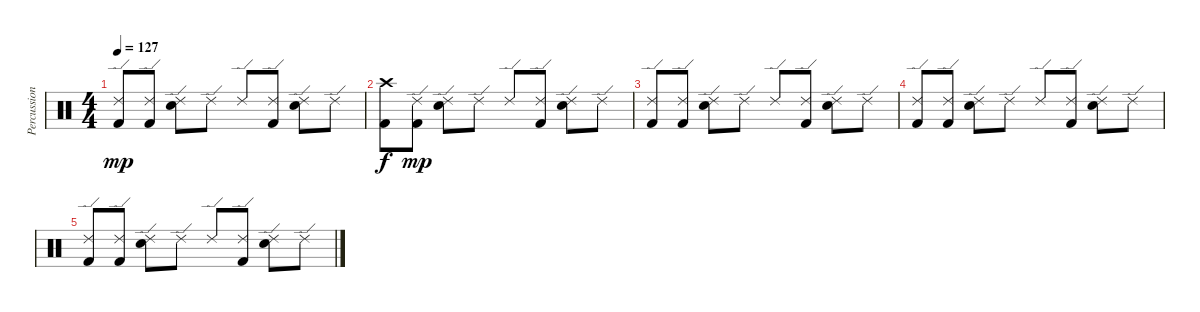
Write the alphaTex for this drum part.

\track ("Percussion" "Percussion") {instrument percussion}
\staff {score}
\articulation defaults
\ts (4 4)
\tempo 127
\clef neutral
\ks c
("Ride (edge) 2" "Kick (hit) 2").8{dy mp volume 8} ("Ride (edge) 2" "Kick (hit) 2").8 ("Ride (edge) 2" "Snare (hit) 2").8 "Ride (edge) 2".8 "Ride (edge) 2".8 ("Ride (edge) 2" "Kick (hit) 2").8 ("Ride (edge) 2" "Snare (hit) 2").8 "Ride (edge) 2".8 |
("Crash high (hit)" "Kick (hit) 2").8{dy f volume 6} ("Ride (edge) 2" "Kick (hit) 2").8{dy mp} ("Ride (edge) 2" "Snare (hit) 2").8 "Ride (edge) 2".8 "Ride (edge) 2".8 ("Ride (edge) 2" "Kick (hit) 2").8 ("Ride (edge) 2" "Snare (hit) 2").8 "Ride (edge) 2".8 |
("Ride (edge) 2" "Kick (hit) 2").8{volume 4} ("Ride (edge) 2" "Kick (hit) 2").8 ("Ride (edge) 2" "Snare (hit) 2").8 "Ride (edge) 2".8 "Ride (edge) 2".8 ("Ride (edge) 2" "Kick (hit) 2").8 ("Ride (edge) 2" "Snare (hit) 2").8 "Ride (edge) 2".8 |
("Ride (edge) 2" "Kick (hit) 2").8{volume 2} ("Ride (edge) 2" "Kick (hit) 2").8 ("Ride (edge) 2" "Snare (hit) 2").8 "Ride (edge) 2".8 "Ride (edge) 2".8 ("Ride (edge) 2" "Kick (hit) 2").8 ("Ride (edge) 2" "Snare (hit) 2").8 "Ride (edge) 2".8 |
("Ride (edge) 2" "Kick (hit) 2").8{volume 0} ("Ride (edge) 2" "Kick (hit) 2").8 ("Ride (edge) 2" "Snare (hit) 2").8 "Ride (edge) 2".8 "Ride (edge) 2".8 ("Ride (edge) 2" "Kick (hit) 2").8 ("Ride (edge) 2" "Snare (hit) 2").8 "Ride (edge) 2".8
